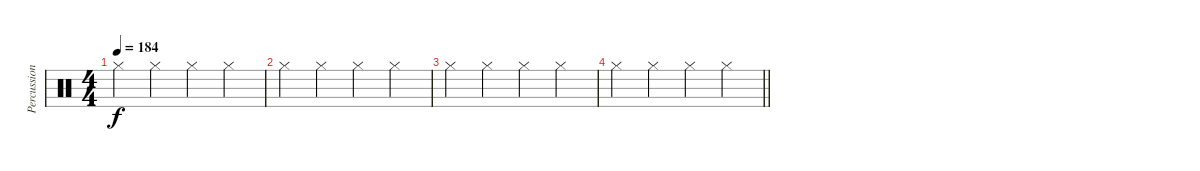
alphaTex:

\track ("Percussions" "Percussion") {instrument percussion}
\staff {score}
\articulation defaults
\ts (4 4)
\tempo 184
\clef neutral
\ks c "Hi-Hat (closed)".4{dy f} "Hi-Hat (closed)".4 "Hi-Hat (closed)".4 "Hi-Hat (closed)".4
|
"Hi-Hat (closed)".4 "Hi-Hat (closed)".4 "Hi-Hat (closed)".4 "Hi-Hat (closed)".4 |
"Hi-Hat (closed)".4 "Hi-Hat (closed)".4 "Hi-Hat (closed)".4 "Hi-Hat (closed)".4 |
\barLineRight lightlight "Hi-Hat (closed)".4 "Hi-Hat (closed)".4 "Hi-Hat (closed)".4 "Hi-Hat (closed)".4
